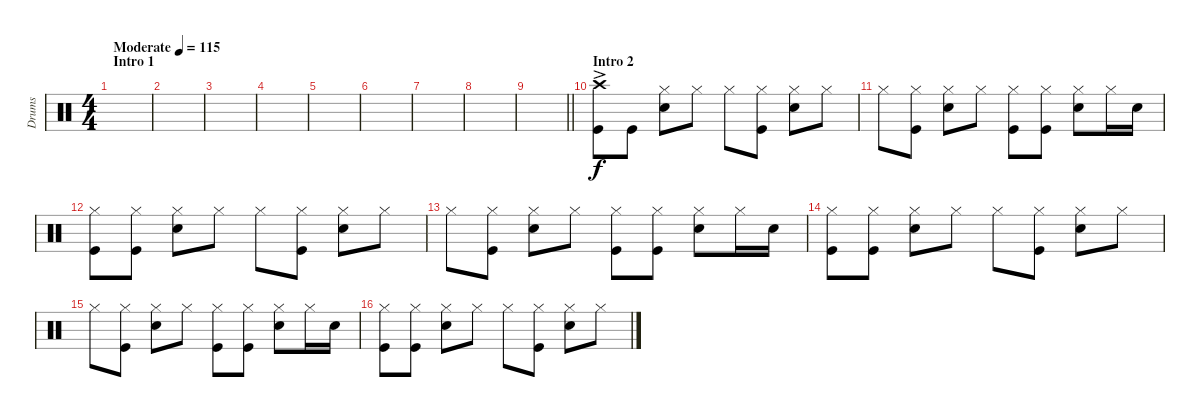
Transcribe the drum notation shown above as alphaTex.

\track ("Drums" "Drums") {instrument percussion}
\staff {score}
\articulation defaults
\ts (4 4)
\section ("" "Intro 1")
\tempo (115 "Moderate")
\clef neutral
\ks c
|
|
|
|
|
|
|
|
\barLineRight lightlight
|
\section ("" "Intro 2")
("Crash high (hit)"{ac} "Kick (hit)").8 "Kick (hit)".8{dy f} ("Snare (hit) 2" "Hi-Hat (closed)").8 "Hi-Hat (closed)".8 "Hi-Hat (closed)".8 ("Hi-Hat (closed)" "Kick (hit)").8 ("Hi-Hat (closed)" "Snare (hit) 2").8 "Hi-Hat (closed)".8 |
"Hi-Hat (closed)".8 ("Kick (hit)" "Hi-Hat (closed)").8 ("Hi-Hat (closed)" "Snare (hit) 2").8 "Hi-Hat (closed)".8 ("Hi-Hat (closed)" "Kick (hit)").8 ("Hi-Hat (closed)" "Kick (hit)").8 ("Hi-Hat (closed)" "Snare (hit) 2").8 "Hi-Hat (closed)".16 "Snare (hit) 2".16 |
("Hi-Hat (closed)" "Kick (hit)").8 ("Hi-Hat (closed)" "Kick (hit)").8 ("Hi-Hat (closed)" "Snare (hit) 2").8 "Hi-Hat (closed)".8 "Hi-Hat (closed)".8 ("Hi-Hat (closed)" "Kick (hit)").8 ("Hi-Hat (closed)" "Snare (hit) 2").8 "Hi-Hat (closed)".8 |
"Hi-Hat (closed)".8 ("Hi-Hat (closed)" "Kick (hit)").8 ("Hi-Hat (closed)" "Snare (hit) 2").8 "Hi-Hat (closed)".8 ("Hi-Hat (closed)" "Kick (hit)").8 ("Hi-Hat (closed)" "Kick (hit)").8 ("Hi-Hat (closed)" "Snare (hit) 2").8 "Hi-Hat (closed)".16 "Snare (hit) 2".16 |
("Hi-Hat (closed)" "Kick (hit)").8 ("Hi-Hat (closed)" "Kick (hit)").8 ("Hi-Hat (closed)" "Snare (hit) 2").8 "Hi-Hat (closed)".8 "Hi-Hat (closed)".8 ("Hi-Hat (closed)" "Kick (hit)").8 ("Hi-Hat (closed)" "Snare (hit) 2").8 "Hi-Hat (closed)".8 |
"Hi-Hat (closed)".8 ("Hi-Hat (closed)" "Kick (hit)").8 ("Hi-Hat (closed)" "Snare (hit) 2").8 "Hi-Hat (closed)".8 ("Hi-Hat (closed)" "Kick (hit)").8 ("Hi-Hat (closed)" "Kick (hit)").8 ("Hi-Hat (closed)" "Snare (hit) 2").8 "Hi-Hat (closed)".16 "Snare (hit) 2".16 |
("Hi-Hat (closed)" "Kick (hit)").8 ("Hi-Hat (closed)" "Kick (hit)").8 ("Hi-Hat (closed)" "Snare (hit) 2").8 "Hi-Hat (closed)".8 "Hi-Hat (closed)".8 ("Hi-Hat (closed)" "Kick (hit)").8 ("Hi-Hat (closed)" "Snare (hit) 2").8 "Hi-Hat (closed)".8
